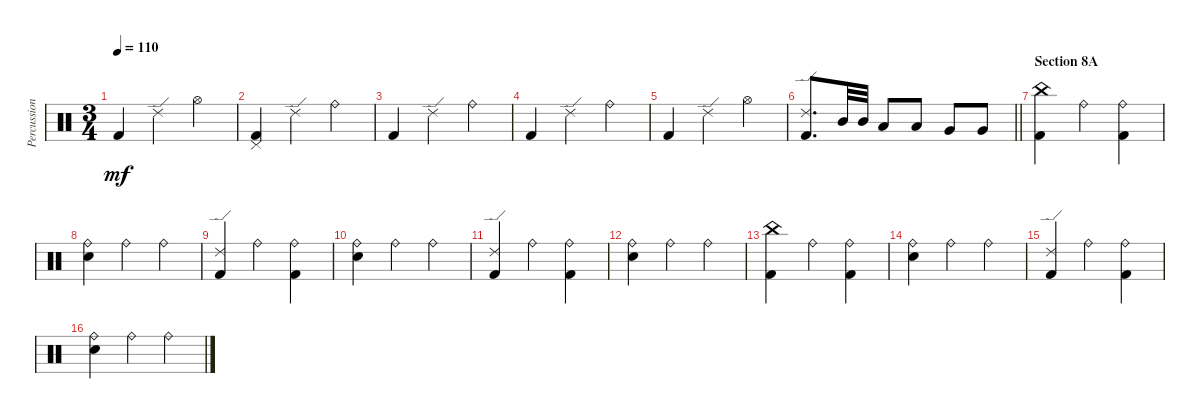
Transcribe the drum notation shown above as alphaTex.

\track ("Percussion" "Percussion") {instrument percussion}
\staff {score}
\articulation defaults
\ts (3 4)
\tempo 110
\clef neutral
\ks c "Kick (hit) 2".4{dy mf} "Ride (edge) 2".4 "Hi-Hat (open)".4
|
("Pedal Hi-Hat (hit)" "Kick (hit) 2").4 "Ride (edge) 2".4 "Ride (bell)".4 |
"Kick (hit) 2".4 "Ride (edge) 2".4 "Ride (bell)".4 |
"Kick (hit) 2".4 "Ride (edge) 2".4 "Ride (bell)".4 |
"Kick (hit) 2".4 "Ride (edge) 2".4 "Hi-Hat (open)".4 |
\barLineRight lightlight
("Ride (edge) 2" "Kick (hit) 2").8{d} "Mid Tom (hit)".32 "Mid Tom (hit)".32 "Low Tom (hit)".8 "Low Tom (hit)".8 "Very Low Tom (hit)".8 "Very Low Tom (hit)".8 |
\section ("" "Section 8A")
("China (hit)" "Kick (hit) 2").4 "Ride (bell)".4 ("Ride (bell)" "Kick (hit) 2").4 |
("Ride (bell)" "Electric Snare (hit)").4 "Ride (bell)".4 "Ride (bell)".4 |
("Ride (edge) 2" "Kick (hit) 2").4 "Ride (bell)".4 ("Ride (bell)" "Kick (hit) 2").4 |
("Ride (bell)" "Electric Snare (hit)").4 "Ride (bell)".4 "Ride (bell)".4 |
("Ride (edge) 2" "Kick (hit) 2").4 "Ride (bell)".4 ("Ride (bell)" "Kick (hit) 2").4 |
("Ride (bell)" "Electric Snare (hit)").4 "Ride (bell)".4 "Ride (bell)".4 |
("China (hit)" "Kick (hit) 2").4 "Ride (bell)".4 ("Ride (bell)" "Kick (hit) 2").4 |
("Ride (bell)" "Electric Snare (hit)").4 "Ride (bell)".4 "Ride (bell)".4 |
("Ride (edge) 2" "Kick (hit) 2").4 "Ride (bell)".4 ("Ride (bell)" "Kick (hit) 2").4 |
("Ride (bell)" "Electric Snare (hit)").4 "Ride (bell)".4 "Ride (bell)".4
